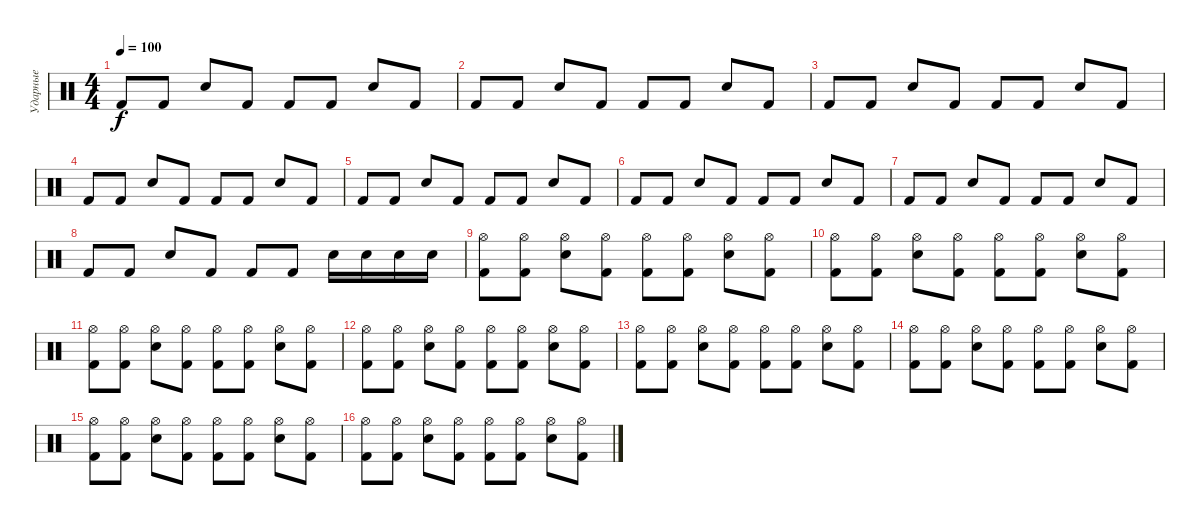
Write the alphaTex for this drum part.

\track ("Ударные" "Ударные") {instrument percussion}
\staff {score}
\articulation defaults
\ts (4 4)
\tempo 100
\clef neutral
\ks c "Kick (hit) 2".8{dy f} "Kick (hit) 2".8 "Snare (hit) 2".8 "Kick (hit) 2".8 "Kick (hit) 2".8 "Kick (hit) 2".8 "Snare (hit) 2".8 "Kick (hit) 2".8
|
"Kick (hit) 2".8 "Kick (hit) 2".8 "Snare (hit) 2".8 "Kick (hit) 2".8 "Kick (hit) 2".8 "Kick (hit) 2".8 "Snare (hit) 2".8 "Kick (hit) 2".8 |
"Kick (hit) 2".8 "Kick (hit) 2".8 "Snare (hit) 2".8 "Kick (hit) 2".8 "Kick (hit) 2".8 "Kick (hit) 2".8 "Snare (hit) 2".8 "Kick (hit) 2".8 |
"Kick (hit) 2".8 "Kick (hit) 2".8 "Snare (hit) 2".8 "Kick (hit) 2".8 "Kick (hit) 2".8 "Kick (hit) 2".8 "Snare (hit) 2".8 "Kick (hit) 2".8 |
"Kick (hit) 2".8 "Kick (hit) 2".8 "Snare (hit) 2".8 "Kick (hit) 2".8 "Kick (hit) 2".8 "Kick (hit) 2".8 "Snare (hit) 2".8 "Kick (hit) 2".8 |
"Kick (hit) 2".8 "Kick (hit) 2".8 "Snare (hit) 2".8 "Kick (hit) 2".8 "Kick (hit) 2".8 "Kick (hit) 2".8 "Snare (hit) 2".8 "Kick (hit) 2".8 |
"Kick (hit) 2".8 "Kick (hit) 2".8 "Snare (hit) 2".8 "Kick (hit) 2".8 "Kick (hit) 2".8 "Kick (hit) 2".8 "Snare (hit) 2".8 "Kick (hit) 2".8 |
"Kick (hit) 2".8 "Kick (hit) 2".8 "Snare (hit) 2".8 "Kick (hit) 2".8 "Kick (hit) 2".8 "Kick (hit) 2".8 "Snare (hit) 2".16 "Snare (hit) 2".16 "Snare (hit) 2".16 "Snare (hit) 2".16 |
("Hi-Hat (open)" "Kick (hit) 2").8 ("Hi-Hat (open)" "Kick (hit) 2").8 ("Hi-Hat (open)" "Snare (hit) 2").8 ("Hi-Hat (open)" "Kick (hit) 2").8 ("Hi-Hat (open)" "Kick (hit) 2").8 ("Hi-Hat (open)" "Kick (hit) 2").8 ("Hi-Hat (open)" "Snare (hit) 2").8 ("Hi-Hat (open)" "Kick (hit) 2").8 |
("Hi-Hat (open)" "Kick (hit) 2").8 ("Hi-Hat (open)" "Kick (hit) 2").8 ("Hi-Hat (open)" "Snare (hit) 2").8 ("Hi-Hat (open)" "Kick (hit) 2").8 ("Hi-Hat (open)" "Kick (hit) 2").8 ("Hi-Hat (open)" "Kick (hit) 2").8 ("Hi-Hat (open)" "Snare (hit) 2").8 ("Hi-Hat (open)" "Kick (hit) 2").8 |
("Hi-Hat (open)" "Kick (hit) 2").8 ("Hi-Hat (open)" "Kick (hit) 2").8 ("Hi-Hat (open)" "Snare (hit) 2").8 ("Hi-Hat (open)" "Kick (hit) 2").8 ("Hi-Hat (open)" "Kick (hit) 2").8 ("Hi-Hat (open)" "Kick (hit) 2").8 ("Hi-Hat (open)" "Snare (hit) 2").8 ("Hi-Hat (open)" "Kick (hit) 2").8 |
("Hi-Hat (open)" "Kick (hit) 2").8 ("Hi-Hat (open)" "Kick (hit) 2").8 ("Hi-Hat (open)" "Snare (hit) 2").8 ("Hi-Hat (open)" "Kick (hit) 2").8 ("Hi-Hat (open)" "Kick (hit) 2").8 ("Hi-Hat (open)" "Kick (hit) 2").8 ("Hi-Hat (open)" "Snare (hit) 2").8 ("Hi-Hat (open)" "Kick (hit) 2").8 |
("Hi-Hat (open)" "Kick (hit) 2").8 ("Hi-Hat (open)" "Kick (hit) 2").8 ("Hi-Hat (open)" "Snare (hit) 2").8 ("Hi-Hat (open)" "Kick (hit) 2").8 ("Hi-Hat (open)" "Kick (hit) 2").8 ("Hi-Hat (open)" "Kick (hit) 2").8 ("Hi-Hat (open)" "Snare (hit) 2").8 ("Hi-Hat (open)" "Kick (hit) 2").8 |
("Hi-Hat (open)" "Kick (hit) 2").8 ("Hi-Hat (open)" "Kick (hit) 2").8 ("Hi-Hat (open)" "Snare (hit) 2").8 ("Hi-Hat (open)" "Kick (hit) 2").8 ("Hi-Hat (open)" "Kick (hit) 2").8 ("Hi-Hat (open)" "Kick (hit) 2").8 ("Hi-Hat (open)" "Snare (hit) 2").8 ("Hi-Hat (open)" "Kick (hit) 2").8 |
("Hi-Hat (open)" "Kick (hit) 2").8 ("Hi-Hat (open)" "Kick (hit) 2").8 ("Hi-Hat (open)" "Snare (hit) 2").8 ("Hi-Hat (open)" "Kick (hit) 2").8 ("Hi-Hat (open)" "Kick (hit) 2").8 ("Hi-Hat (open)" "Kick (hit) 2").8 ("Hi-Hat (open)" "Snare (hit) 2").8 ("Hi-Hat (open)" "Kick (hit) 2").8 |
("Hi-Hat (open)" "Kick (hit) 2").8 ("Hi-Hat (open)" "Kick (hit) 2").8 ("Hi-Hat (open)" "Snare (hit) 2").8 ("Hi-Hat (open)" "Kick (hit) 2").8 ("Hi-Hat (open)" "Kick (hit) 2").8 ("Hi-Hat (open)" "Kick (hit) 2").8 ("Hi-Hat (open)" "Snare (hit) 2").8 ("Hi-Hat (open)" "Kick (hit) 2").8
